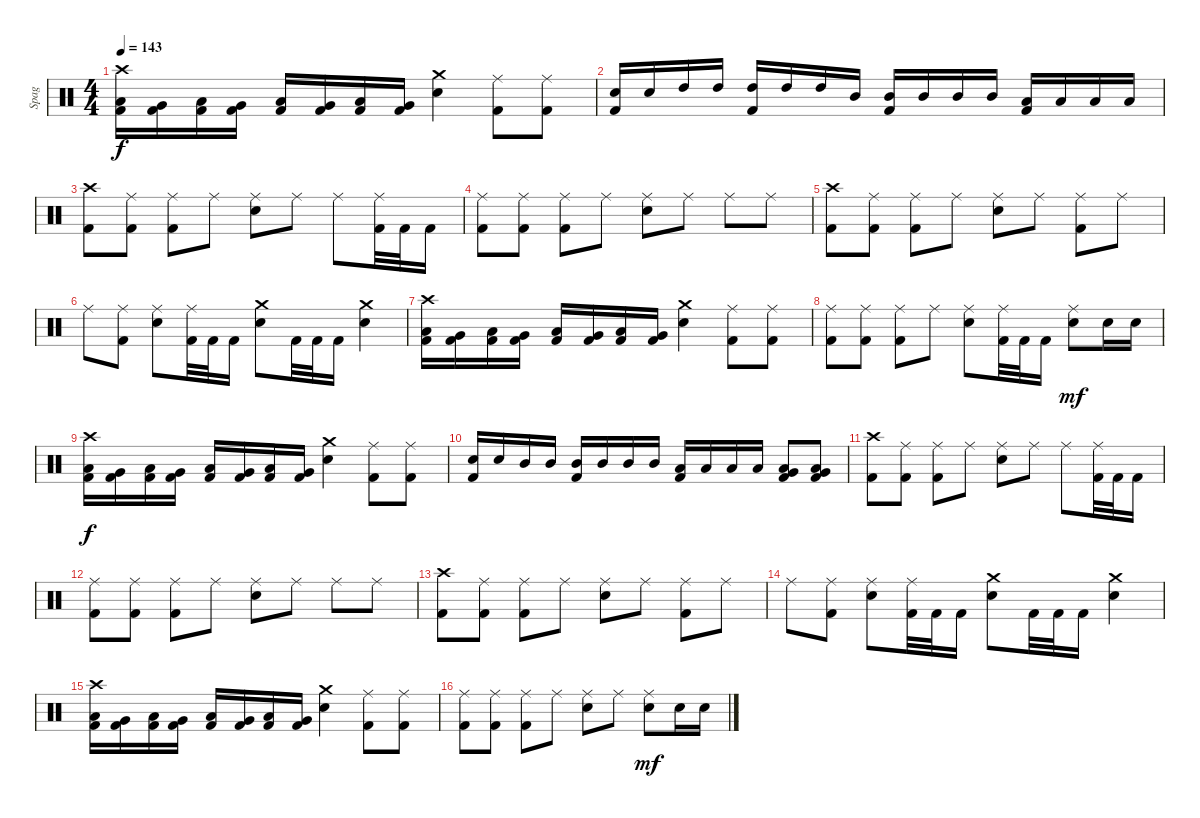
\track ("Spag" "Spag") {instrument percussion}
\staff {score}
\articulation defaults
\ts (4 4)
\tempo 143
\clef neutral
\ks c
("Crash high (hit)" "Low Floor Tom (hit)" "Kick (hit) 2").16{dy f} ("Very Low Tom (hit)" "Kick (hit) 2").16 ("Low Floor Tom (hit)" "Kick (hit) 2").16 ("Very Low Tom (hit)" "Kick (hit) 2").16 ("Low Floor Tom (hit)" "Kick (hit) 2").16 ("Very Low Tom (hit)" "Kick (hit) 2").16 ("Low Floor Tom (hit)" "Kick (hit) 2").16 ("Very Low Tom (hit)" "Kick (hit) 2").16 ("Crash medium (hit)" "Electric Snare (hit)").4 ("Ride (middle)" "Kick (hit) 2").8 ("Ride (middle)" "Kick (hit) 2").8 |
("Electric Snare (hit)" "Kick (hit) 2").16 "Electric Snare (hit)".16 "High Tom (hit)".16 "High Tom (hit)".16 ("High Tom (hit)" "Kick (hit) 2").16 "High Tom (hit)".16 "High Tom (hit)".16 "Mid Tom (hit)".16 ("Mid Tom (hit)" "Kick (hit) 2").16 "Mid Tom (hit)".16 "Mid Tom (hit)".16 "Mid Tom (hit)".16 ("Low Tom (hit)" "Kick (hit) 2").16 "Low Tom (hit)".16 "Low Tom (hit)".16 "Low Tom (hit)".16 |
("Crash high (hit)" "Kick (hit) 2").8 ("Ride (middle)" "Kick (hit) 2").8 ("Ride (middle)" "Kick (hit) 2").8 "Ride (middle)".8 ("Ride (middle)" "Electric Snare (hit)").8 "Ride (middle)".8 "Ride (middle)".8 ("Ride (middle)" "Kick (hit) 2").32 "Kick (hit) 2".32 "Kick (hit) 2".16 |
("Ride (middle)" "Kick (hit) 2").8 ("Ride (middle)" "Kick (hit) 2").8 ("Ride (middle)" "Kick (hit) 2").8 "Ride (middle)".8 ("Ride (middle)" "Electric Snare (hit)").8 "Ride (middle)".8 "Ride (middle)".8 "Ride (middle)".8 |
("Crash high (hit)" "Kick (hit) 2").8{volume 14} ("Ride (middle)" "Kick (hit) 2").8 ("Ride (middle)" "Kick (hit) 2").8 "Ride (middle)".8 ("Ride (middle)" "Electric Snare (hit)").8 "Ride (middle)".8 ("Ride (middle)" "Kick (hit) 2").8 "Ride (middle)".8 |
"Ride (middle)".8 ("Ride (middle)" "Kick (hit) 2").8 ("Ride (middle)" "Electric Snare (hit)").8 ("Ride (middle)" "Kick (hit) 2").32 "Kick (hit) 2".32 "Kick (hit) 2".16 ("Crash medium (hit)" "Electric Snare (hit)").8 "Kick (hit) 2".32 "Kick (hit) 2".32 "Kick (hit) 2".16 ("Crash medium (hit)" "Electric Snare (hit)").4 |
("Crash high (hit)" "Low Floor Tom (hit)" "Kick (hit) 2").16{volume 12} ("Very Low Tom (hit)" "Kick (hit) 2").16 ("Low Floor Tom (hit)" "Kick (hit) 2").16 ("Very Low Tom (hit)" "Kick (hit) 2").16 ("Low Floor Tom (hit)" "Kick (hit) 2").16 ("Very Low Tom (hit)" "Kick (hit) 2").16 ("Low Floor Tom (hit)" "Kick (hit) 2").16 ("Very Low Tom (hit)" "Kick (hit) 2").16 ("Crash medium (hit)" "Electric Snare (hit)").4 ("Ride (middle)" "Kick (hit) 2").8 ("Ride (middle)" "Kick (hit) 2").8 |
("Ride (middle)" "Kick (hit) 2").8 ("Ride (middle)" "Kick (hit) 2").8 ("Ride (middle)" "Kick (hit) 2").8 "Ride (middle)".8 ("Ride (middle)" "Electric Snare (hit)").8 ("Ride (middle)" "Kick (hit) 2").32 "Kick (hit) 2".32 "Kick (hit) 2".16 ("Ride (middle)" "Electric Snare (hit)").8{dy mf} "Electric Snare (hit)".16 "Electric Snare (hit)".16 |
("Crash high (hit)" "Low Floor Tom (hit)" "Kick (hit) 2").16{dy f volume 10} ("Very Low Tom (hit)" "Kick (hit) 2").16 ("Low Floor Tom (hit)" "Kick (hit) 2").16 ("Very Low Tom (hit)" "Kick (hit) 2").16 ("Low Floor Tom (hit)" "Kick (hit) 2").16 ("Very Low Tom (hit)" "Kick (hit) 2").16 ("Low Floor Tom (hit)" "Kick (hit) 2").16 ("Very Low Tom (hit)" "Kick (hit) 2").16 ("Crash medium (hit)" "Electric Snare (hit)").4 ("Ride (middle)" "Kick (hit) 2").8 ("Ride (middle)" "Kick (hit) 2").8 |
("Electric Snare (hit)" "Kick (hit) 2").16 "Electric Snare (hit)".16 "Mid Tom (hit)".16 "Mid Tom (hit)".16 ("Mid Tom (hit)" "Kick (hit) 2").16 "Mid Tom (hit)".16 "Mid Tom (hit)".16 "Mid Tom (hit)".16 ("Low Tom (hit)" "Kick (hit) 2").16 "Low Tom (hit)".16 "Low Tom (hit)".16 "Low Tom (hit)".16 ("Very Low Tom (hit)" "Low Floor Tom (hit)" "Kick (hit) 2").8 ("Very Low Tom (hit)" "Low Floor Tom (hit)" "Kick (hit) 2").8 |
("Crash high (hit)" "Kick (hit) 2").8{volume 8} ("Ride (middle)" "Kick (hit) 2").8 ("Ride (middle)" "Kick (hit) 2").8 "Ride (middle)".8 ("Ride (middle)" "Electric Snare (hit)").8 "Ride (middle)".8 "Ride (middle)".8 ("Ride (middle)" "Kick (hit) 2").32 "Kick (hit) 2".32 "Kick (hit) 2".16 |
("Ride (middle)" "Kick (hit) 2").8 ("Ride (middle)" "Kick (hit) 2").8 ("Ride (middle)" "Kick (hit) 2").8 "Ride (middle)".8 ("Ride (middle)" "Electric Snare (hit)").8 "Ride (middle)".8 "Ride (middle)".8 "Ride (middle)".8 |
("Crash high (hit)" "Kick (hit) 2").8{volume 6} ("Ride (middle)" "Kick (hit) 2").8 ("Ride (middle)" "Kick (hit) 2").8 "Ride (middle)".8 ("Ride (middle)" "Electric Snare (hit)").8 "Ride (middle)".8 ("Ride (middle)" "Kick (hit) 2").8 "Ride (middle)".8 |
"Ride (middle)".8 ("Ride (middle)" "Kick (hit) 2").8 ("Ride (middle)" "Electric Snare (hit)").8 ("Ride (middle)" "Kick (hit) 2").32 "Kick (hit) 2".32 "Kick (hit) 2".16 ("Crash medium (hit)" "Electric Snare (hit)").8 "Kick (hit) 2".32 "Kick (hit) 2".32 "Kick (hit) 2".16 ("Crash medium (hit)" "Electric Snare (hit)").4 |
("Crash high (hit)" "Low Floor Tom (hit)" "Kick (hit) 2").16{volume 4} ("Very Low Tom (hit)" "Kick (hit) 2").16 ("Low Floor Tom (hit)" "Kick (hit) 2").16 ("Very Low Tom (hit)" "Kick (hit) 2").16 ("Low Floor Tom (hit)" "Kick (hit) 2").16 ("Very Low Tom (hit)" "Kick (hit) 2").16 ("Low Floor Tom (hit)" "Kick (hit) 2").16 ("Very Low Tom (hit)" "Kick (hit) 2").16 ("Crash medium (hit)" "Electric Snare (hit)").4 ("Ride (middle)" "Kick (hit) 2").8 ("Ride (middle)" "Kick (hit) 2").8 |
("Ride (middle)" "Kick (hit) 2").8 ("Ride (middle)" "Kick (hit) 2").8 ("Ride (middle)" "Kick (hit) 2").8 "Ride (middle)".8 ("Ride (middle)" "Electric Snare (hit)").8 "Ride (middle)".8 ("Ride (middle)" "Electric Snare (hit)").8{dy mf} "Electric Snare (hit)".16 "Electric Snare (hit)".16
